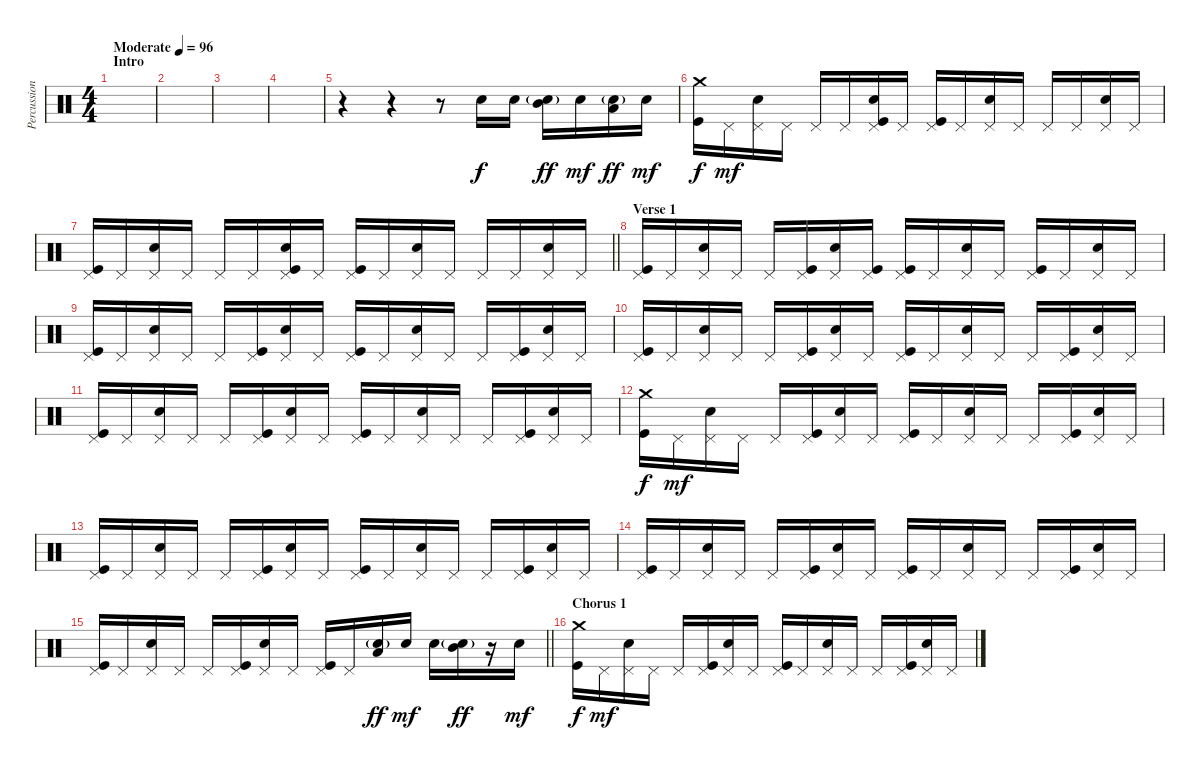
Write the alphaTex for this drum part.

\track ("Percussion" "Percussion") {instrument percussion}
\staff {score}
\articulation defaults
\ts (4 4)
\section ("" "Intro")
\tempo (96 "Moderate")
\clef neutral
\ks c
|
|
|
|
r.4 r.4 r.8 "Electric Snare (hit)".16 "Electric Snare (hit)".16 ("Snare (hit) 2"{g} "Mid Tom (hit)").16{dy ff} "Electric Snare (hit)".16{dy mf} ("Snare (hit) 2"{g} "Low Tom (hit)").16{dy ff} "Electric Snare (hit)".16{dy mf} |
("Crash medium (hit)" "Kick (hit)").16{dy f} "Pedal Hi-Hat (hit)".16{dy mf} ("Pedal Hi-Hat (hit)" "Snare (hit) 2").16 "Pedal Hi-Hat (hit)".16 "Pedal Hi-Hat (hit)".16 "Pedal Hi-Hat (hit)".16 ("Pedal Hi-Hat (hit)" "Snare (hit) 2" "Kick (hit)").16 "Pedal Hi-Hat (hit)".16 ("Pedal Hi-Hat (hit)" "Kick (hit)").16 "Pedal Hi-Hat (hit)".16 ("Pedal Hi-Hat (hit)" "Snare (hit) 2").16 "Pedal Hi-Hat (hit)".16 "Pedal Hi-Hat (hit)".16 "Pedal Hi-Hat (hit)".16 ("Pedal Hi-Hat (hit)" "Snare (hit) 2").16 "Pedal Hi-Hat (hit)".16 |
\barLineRight lightlight
("Pedal Hi-Hat (hit)" "Kick (hit)").16 "Pedal Hi-Hat (hit)".16 ("Pedal Hi-Hat (hit)" "Snare (hit) 2").16 "Pedal Hi-Hat (hit)".16 "Pedal Hi-Hat (hit)".16 "Pedal Hi-Hat (hit)".16 ("Pedal Hi-Hat (hit)" "Snare (hit) 2" "Kick (hit)").16 "Pedal Hi-Hat (hit)".16 ("Pedal Hi-Hat (hit)" "Kick (hit)").16 "Pedal Hi-Hat (hit)".16 ("Pedal Hi-Hat (hit)" "Snare (hit) 2").16 "Pedal Hi-Hat (hit)".16 "Pedal Hi-Hat (hit)".16 "Pedal Hi-Hat (hit)".16 ("Pedal Hi-Hat (hit)" "Snare (hit) 2").16 "Pedal Hi-Hat (hit)".16 |
\section ("" "Verse 1")
("Pedal Hi-Hat (hit)" "Kick (hit)").16 "Pedal Hi-Hat (hit)".16 ("Pedal Hi-Hat (hit)" "Snare (hit) 2").16 "Pedal Hi-Hat (hit)".16 "Pedal Hi-Hat (hit)".16 ("Pedal Hi-Hat (hit)" "Kick (hit)").16 ("Pedal Hi-Hat (hit)" "Snare (hit) 2").16 ("Pedal Hi-Hat (hit)" "Kick (hit)").16 ("Pedal Hi-Hat (hit)" "Kick (hit)").16 "Pedal Hi-Hat (hit)".16 ("Pedal Hi-Hat (hit)" "Snare (hit) 2").16 "Pedal Hi-Hat (hit)".16 ("Pedal Hi-Hat (hit)" "Kick (hit)").16 "Pedal Hi-Hat (hit)".16 ("Pedal Hi-Hat (hit)" "Snare (hit) 2").16 "Pedal Hi-Hat (hit)".16 |
("Pedal Hi-Hat (hit)" "Kick (hit)").16 "Pedal Hi-Hat (hit)".16 ("Pedal Hi-Hat (hit)" "Snare (hit) 2").16 "Pedal Hi-Hat (hit)".16 "Pedal Hi-Hat (hit)".16 ("Pedal Hi-Hat (hit)" "Kick (hit)").16 ("Pedal Hi-Hat (hit)" "Snare (hit) 2").16 "Pedal Hi-Hat (hit)".16 ("Pedal Hi-Hat (hit)" "Kick (hit)").16 "Pedal Hi-Hat (hit)".16 ("Pedal Hi-Hat (hit)" "Snare (hit) 2").16 "Pedal Hi-Hat (hit)".16 "Pedal Hi-Hat (hit)".16 ("Pedal Hi-Hat (hit)" "Kick (hit)").16 ("Pedal Hi-Hat (hit)" "Snare (hit) 2").16 "Pedal Hi-Hat (hit)".16 |
("Pedal Hi-Hat (hit)" "Kick (hit)").16 "Pedal Hi-Hat (hit)".16 ("Pedal Hi-Hat (hit)" "Snare (hit) 2").16 "Pedal Hi-Hat (hit)".16 "Pedal Hi-Hat (hit)".16 ("Pedal Hi-Hat (hit)" "Kick (hit)").16 ("Pedal Hi-Hat (hit)" "Snare (hit) 2").16 "Pedal Hi-Hat (hit)".16 ("Pedal Hi-Hat (hit)" "Kick (hit)").16 "Pedal Hi-Hat (hit)".16 ("Pedal Hi-Hat (hit)" "Snare (hit) 2").16 "Pedal Hi-Hat (hit)".16 "Pedal Hi-Hat (hit)".16 ("Pedal Hi-Hat (hit)" "Kick (hit)").16 ("Pedal Hi-Hat (hit)" "Snare (hit) 2").16 "Pedal Hi-Hat (hit)".16 |
("Pedal Hi-Hat (hit)" "Kick (hit)").16 "Pedal Hi-Hat (hit)".16 ("Pedal Hi-Hat (hit)" "Snare (hit) 2").16 "Pedal Hi-Hat (hit)".16 "Pedal Hi-Hat (hit)".16 ("Pedal Hi-Hat (hit)" "Kick (hit)").16 ("Pedal Hi-Hat (hit)" "Snare (hit) 2").16 "Pedal Hi-Hat (hit)".16 ("Pedal Hi-Hat (hit)" "Kick (hit)").16 "Pedal Hi-Hat (hit)".16 ("Pedal Hi-Hat (hit)" "Snare (hit) 2").16 "Pedal Hi-Hat (hit)".16 "Pedal Hi-Hat (hit)".16 ("Pedal Hi-Hat (hit)" "Kick (hit)").16 ("Pedal Hi-Hat (hit)" "Snare (hit) 2").16 "Pedal Hi-Hat (hit)".16 |
("Crash medium (hit)" "Kick (hit)").16{dy f} "Pedal Hi-Hat (hit)".16{dy mf} ("Pedal Hi-Hat (hit)" "Snare (hit) 2").16 "Pedal Hi-Hat (hit)".16 "Pedal Hi-Hat (hit)".16 ("Pedal Hi-Hat (hit)" "Kick (hit)").16 ("Pedal Hi-Hat (hit)" "Snare (hit) 2").16 "Pedal Hi-Hat (hit)".16 ("Pedal Hi-Hat (hit)" "Kick (hit)").16 "Pedal Hi-Hat (hit)".16 ("Pedal Hi-Hat (hit)" "Snare (hit) 2").16 "Pedal Hi-Hat (hit)".16 "Pedal Hi-Hat (hit)".16 ("Pedal Hi-Hat (hit)" "Kick (hit)").16 ("Pedal Hi-Hat (hit)" "Snare (hit) 2").16 "Pedal Hi-Hat (hit)".16 |
("Pedal Hi-Hat (hit)" "Kick (hit)").16 "Pedal Hi-Hat (hit)".16 ("Pedal Hi-Hat (hit)" "Snare (hit) 2").16 "Pedal Hi-Hat (hit)".16 "Pedal Hi-Hat (hit)".16 ("Pedal Hi-Hat (hit)" "Kick (hit)").16 ("Pedal Hi-Hat (hit)" "Snare (hit) 2").16 "Pedal Hi-Hat (hit)".16 ("Pedal Hi-Hat (hit)" "Kick (hit)").16 "Pedal Hi-Hat (hit)".16 ("Pedal Hi-Hat (hit)" "Snare (hit) 2").16 "Pedal Hi-Hat (hit)".16 "Pedal Hi-Hat (hit)".16 ("Pedal Hi-Hat (hit)" "Kick (hit)").16 ("Pedal Hi-Hat (hit)" "Snare (hit) 2").16 "Pedal Hi-Hat (hit)".16 |
("Pedal Hi-Hat (hit)" "Kick (hit)").16 "Pedal Hi-Hat (hit)".16 ("Pedal Hi-Hat (hit)" "Snare (hit) 2").16 "Pedal Hi-Hat (hit)".16 "Pedal Hi-Hat (hit)".16 ("Pedal Hi-Hat (hit)" "Kick (hit)").16 ("Pedal Hi-Hat (hit)" "Snare (hit) 2").16 "Pedal Hi-Hat (hit)".16 ("Pedal Hi-Hat (hit)" "Kick (hit)").16 "Pedal Hi-Hat (hit)".16 ("Pedal Hi-Hat (hit)" "Snare (hit) 2").16 "Pedal Hi-Hat (hit)".16 "Pedal Hi-Hat (hit)".16 ("Pedal Hi-Hat (hit)" "Kick (hit)").16 ("Pedal Hi-Hat (hit)" "Snare (hit) 2").16 "Pedal Hi-Hat (hit)".16 |
\barLineRight lightlight
("Pedal Hi-Hat (hit)" "Kick (hit)").16 "Pedal Hi-Hat (hit)".16 ("Pedal Hi-Hat (hit)" "Snare (hit) 2").16 "Pedal Hi-Hat (hit)".16 "Pedal Hi-Hat (hit)".16 ("Pedal Hi-Hat (hit)" "Kick (hit)").16 ("Pedal Hi-Hat (hit)" "Snare (hit) 2").16 "Pedal Hi-Hat (hit)".16 ("Pedal Hi-Hat (hit)" "Kick (hit)").16 "Pedal Hi-Hat (hit)".16 ("Snare (hit) 2"{g} "Low Tom (hit)").16{dy ff} "Electric Snare (hit)".16{dy mf} "Electric Snare (hit)".16 ("Snare (hit) 2"{g} "Mid Tom (hit)").16{dy ff} r.16 "Electric Snare (hit)".16{dy mf} |
\section ("" "Chorus 1")
("Crash medium (hit)" "Kick (hit)").16{dy f} "Pedal Hi-Hat (hit)".16{dy mf} ("Pedal Hi-Hat (hit)" "Snare (hit) 2").16 "Pedal Hi-Hat (hit)".16 "Pedal Hi-Hat (hit)".16 ("Pedal Hi-Hat (hit)" "Kick (hit)").16 ("Pedal Hi-Hat (hit)" "Snare (hit) 2").16 "Pedal Hi-Hat (hit)".16 ("Pedal Hi-Hat (hit)" "Kick (hit)").16 "Pedal Hi-Hat (hit)".16 ("Pedal Hi-Hat (hit)" "Snare (hit) 2").16 "Pedal Hi-Hat (hit)".16 "Pedal Hi-Hat (hit)".16 ("Pedal Hi-Hat (hit)" "Kick (hit)").16 ("Pedal Hi-Hat (hit)" "Snare (hit) 2").16 "Pedal Hi-Hat (hit)".16
